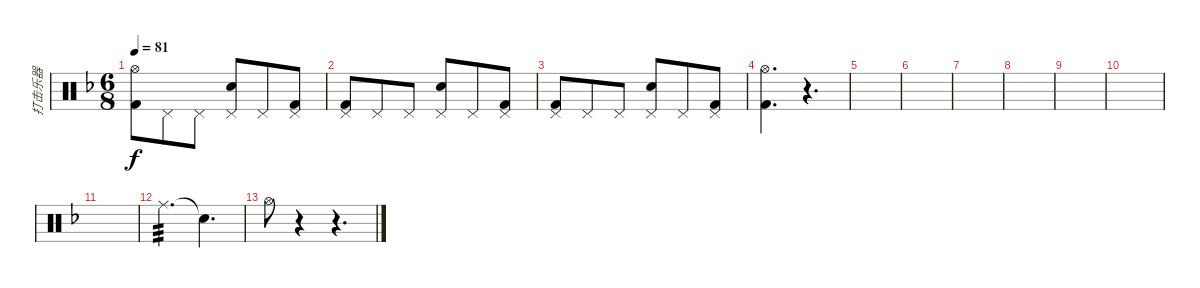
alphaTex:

\track ("打击乐器" "打击乐器") {instrument percussion}
\staff {score}
\articulation defaults
\ts (6 8)
\tempo 81
\clef neutral
\ks f
("Hi-Hat (open)" "Kick (hit) 2").8{dy f} "Pedal Hi-Hat (hit)".8 "Pedal Hi-Hat (hit)".8 ("Pedal Hi-Hat (hit)" "Snare (hit) 2").8 "Pedal Hi-Hat (hit)".8 ("Pedal Hi-Hat (hit)" "Kick (hit) 2").8 |
("Pedal Hi-Hat (hit)" "Kick (hit) 2").8 "Pedal Hi-Hat (hit)".8 "Pedal Hi-Hat (hit)".8 ("Pedal Hi-Hat (hit)" "Snare (hit) 2").8 "Pedal Hi-Hat (hit)".8 ("Pedal Hi-Hat (hit)" "Kick (hit) 2").8 |
("Pedal Hi-Hat (hit)" "Kick (hit) 2").8 "Pedal Hi-Hat (hit)".8 "Pedal Hi-Hat (hit)".8 ("Pedal Hi-Hat (hit)" "Snare (hit) 2").8 "Pedal Hi-Hat (hit)".8 ("Pedal Hi-Hat (hit)" "Kick (hit) 2").8 |
("Hi-Hat (open)" "Kick (hit) 2").4{d} r.4{d} |
|
|
|
|
|
|
|
"Ride (middle)".4{d tp 3} "Snare (hit)"{t}.4{d} |
"Hi-Hat (open)".8 r.4 r.4{d}
